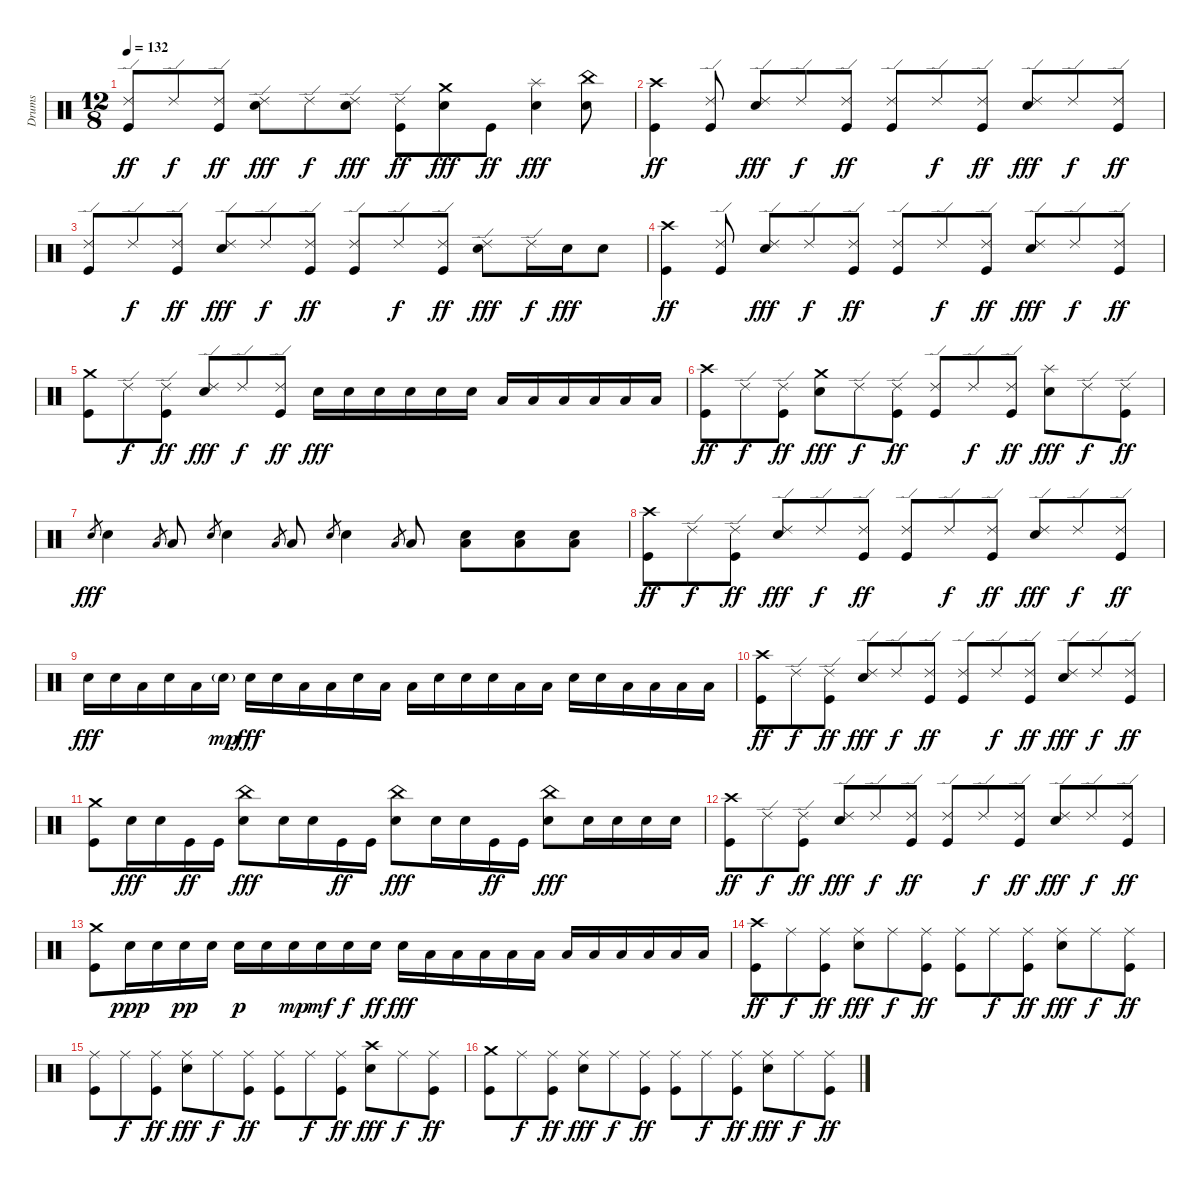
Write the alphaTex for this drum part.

\track ("Drums" "Drums") {instrument percussion}
\staff {score}
\articulation defaults
\ts (12 8)
\tempo 132
\clef neutral
\ks c
("Ride (edge) 2" "Kick (hit)").8{dy ff} "Ride (edge) 2".8{dy f} ("Ride (edge) 2" "Kick (hit)").8{dy ff} ("Ride (edge) 2" "Snare (hit) 2").8{dy fff} "Ride (edge) 2".8{dy f} ("Ride (edge) 2" "Snare (hit) 2").8{dy fff} ("Ride (edge) 2" "Kick (hit)").8{dy ff} ("Crash medium (hit)" "Snare (hit) 2").8{dy fff} "Kick (hit)".8{dy ff} ("Splash (hit)" "Snare (hit) 2").4{dy fff} ("China (hit)" "Snare (hit) 2").8 |
("Crash high (hit)" "Kick (hit)").4{dy ff} ("Ride (edge) 2" "Kick (hit)").8 ("Ride (edge) 2" "Snare (hit) 2").8{dy fff} "Ride (edge) 2".8{dy f} ("Ride (edge) 2" "Kick (hit)").8{dy ff} ("Ride (edge) 2" "Kick (hit)").8 "Ride (edge) 2".8{dy f} ("Ride (edge) 2" "Kick (hit)").8{dy ff} ("Ride (edge) 2" "Snare (hit) 2").8{dy fff} "Ride (edge) 2".8{dy f} ("Ride (edge) 2" "Kick (hit)").8{dy ff} |
("Ride (edge) 2" "Kick (hit)").8 "Ride (edge) 2".8{dy f} ("Ride (edge) 2" "Kick (hit)").8{dy ff} ("Ride (edge) 2" "Snare (hit) 2").8{dy fff} "Ride (edge) 2".8{dy f} ("Ride (edge) 2" "Kick (hit)").8{dy ff} ("Ride (edge) 2" "Kick (hit)").8 "Ride (edge) 2".8{dy f} ("Ride (edge) 2" "Kick (hit)").8{dy ff} ("Ride (edge) 2" "Snare (hit) 2").8{dy fff} "Ride (edge) 2".16{dy f} "Snare (hit) 2".16{dy fff} "Snare (hit) 2".8 |
("Crash high (hit)" "Kick (hit)").4{dy ff} ("Ride (edge) 2" "Kick (hit)").8 ("Ride (edge) 2" "Snare (hit) 2").8{dy fff} "Ride (edge) 2".8{dy f} ("Ride (edge) 2" "Kick (hit)").8{dy ff} ("Ride (edge) 2" "Kick (hit)").8 "Ride (edge) 2".8{dy f} ("Ride (edge) 2" "Kick (hit)").8{dy ff} ("Ride (edge) 2" "Snare (hit) 2").8{dy fff} "Ride (edge) 2".8{dy f} ("Ride (edge) 2" "Kick (hit)").8{dy ff} |
("Crash medium (hit)" "Kick (hit)").8 "Ride (edge) 2".8{dy f} ("Ride (edge) 2" "Kick (hit)").8{dy ff} ("Ride (edge) 2" "Snare (hit) 2").8{dy fff} "Ride (edge) 2".8{dy f} ("Ride (edge) 2" "Kick (hit)").8{dy ff} "Snare (hit) 2".16{dy fff} "Snare (hit) 2".16 "Snare (hit) 2".16 "Snare (hit) 2".16 "Snare (hit) 2".16 "Snare (hit) 2".16 "Low Tom (hit)".16 "Low Tom (hit)".16 "Low Tom (hit)".16 "Low Tom (hit)".16 "Low Tom (hit)".16 "Low Tom (hit)".16 |
("Crash high (hit)" "Kick (hit)").8{dy ff} "Ride (edge) 2".8{dy f} ("Ride (edge) 2" "Kick (hit)").8{dy ff} ("Crash medium (hit)" "Snare (hit) 2").8{dy fff} "Ride (edge) 2".8{dy f} ("Ride (edge) 2" "Kick (hit)").8{dy ff} ("Ride (edge) 2" "Kick (hit)").8 "Ride (edge) 2".8{dy f} ("Ride (edge) 2" "Kick (hit)").8{dy ff} ("Splash (hit)" "Snare (hit) 2").8{dy fff} "Ride (edge) 2".8{dy f} ("Ride (edge) 2" "Kick (hit)").8{dy ff} |
"Snare (hit) 2".8{gr dy fff} "Snare (hit) 2".4 "Low Tom (hit)".8{gr} "Low Tom (hit)".8 "Snare (hit) 2".8{gr} "Snare (hit) 2".4 "Low Tom (hit)".8{gr} "Low Tom (hit)".8 "Snare (hit) 2".8{gr} "Snare (hit) 2".4 "Low Tom (hit)".8{gr} "Low Tom (hit)".8 ("Low Floor Tom (hit)" "Snare (hit) 2").8 ("Low Floor Tom (hit)" "Snare (hit) 2").8 ("Low Floor Tom (hit)" "Snare (hit) 2").8 |
("Crash high (hit)" "Kick (hit)").8{dy ff} "Ride (edge) 2".8{dy f} ("Ride (edge) 2" "Kick (hit)").8{dy ff} ("Ride (edge) 2" "Snare (hit) 2").8{dy fff} "Ride (edge) 2".8{dy f} ("Ride (edge) 2" "Kick (hit)").8{dy ff} ("Ride (edge) 2" "Kick (hit)").8 "Ride (edge) 2".8{dy f} ("Ride (edge) 2" "Kick (hit)").8{dy ff} ("Ride (edge) 2" "Snare (hit) 2").8{dy fff} "Ride (edge) 2".8{dy f} ("Ride (edge) 2" "Kick (hit)").8{dy ff} |
"Snare (hit) 2".16{dy fff} "Snare (hit) 2".16 "Low Tom (hit)".16 "Snare (hit) 2".16 "Low Tom (hit)".16 "Snare (hit) 2"{g}.16{dy mp} "Snare (hit) 2".16{dy fff} "Snare (hit) 2".16 "Low Tom (hit)".16 "Low Tom (hit)".16 "Snare (hit) 2".16 "Low Tom (hit)".16 "Low Tom (hit)".16 "Snare (hit) 2".16 "Snare (hit) 2".16 "Snare (hit) 2".16 "Low Tom (hit)".16 "Low Tom (hit)".16 "Snare (hit) 2".16 "Snare (hit) 2".16 "Low Tom (hit)".16 "Low Tom (hit)".16 "Low Tom (hit)".16 "Low Tom (hit)".16 |
("Crash high (hit)" "Kick (hit)").8{dy ff} "Ride (edge) 2".8{dy f} ("Ride (edge) 2" "Kick (hit)").8{dy ff} ("Ride (edge) 2" "Snare (hit) 2").8{dy fff} "Ride (edge) 2".8{dy f} ("Ride (edge) 2" "Kick (hit)").8{dy ff} ("Ride (edge) 2" "Kick (hit)").8 "Ride (edge) 2".8{dy f} ("Ride (edge) 2" "Kick (hit)").8{dy ff} ("Ride (edge) 2" "Snare (hit) 2").8{dy fff} "Ride (edge) 2".8{dy f} ("Ride (edge) 2" "Kick (hit)").8{dy ff} |
("Crash medium (hit)" "Kick (hit)").8 "Snare (hit) 2".16{dy fff} "Snare (hit) 2".16 "Kick (hit)".16{dy ff} "Kick (hit)".16 ("China (hit)" "Snare (hit) 2").8{dy fff} "Snare (hit) 2".16 "Snare (hit) 2".16 "Kick (hit)".16{dy ff} "Kick (hit)".16 ("China (hit)" "Snare (hit) 2").8{dy fff} "Snare (hit) 2".16 "Snare (hit) 2".16 "Kick (hit)".16{dy ff} "Kick (hit)".16 ("China (hit)" "Snare (hit) 2").8{dy fff} "Snare (hit) 2".16 "Snare (hit) 2".16 "Snare (hit) 2".16 "Snare (hit) 2".16 |
("Crash high (hit)" "Kick (hit)").8{dy ff} "Ride (edge) 2".8{dy f} ("Ride (edge) 2" "Kick (hit)").8{dy ff} ("Ride (edge) 2" "Snare (hit) 2").8{dy fff} "Ride (edge) 2".8{dy f} ("Ride (edge) 2" "Kick (hit)").8{dy ff} ("Ride (edge) 2" "Kick (hit)").8 "Ride (edge) 2".8{dy f} ("Ride (edge) 2" "Kick (hit)").8{dy ff} ("Ride (edge) 2" "Snare (hit) 2").8{dy fff} "Ride (edge) 2".8{dy f} ("Ride (edge) 2" "Kick (hit)").8{dy ff} |
("Crash medium (hit)" "Kick (hit)").8 "Snare (hit) 2".16{dy ppp} "Snare (hit) 2".16 "Snare (hit) 2".16{dy pp} "Snare (hit) 2".16 "Snare (hit) 2".16{dy p} "Snare (hit) 2".16 "Snare (hit) 2".16{dy mp} "Snare (hit) 2".16{dy mf} "Snare (hit) 2".16{dy f} "Snare (hit) 2".16{dy ff} "Snare (hit) 2".16{dy fff} "Low Tom (hit)".16 "Low Tom (hit)".16 "Low Tom (hit)".16 "Low Tom (hit)".16 "Low Tom (hit)".16 "Low Tom (hit)".16 "Low Tom (hit)".16 "Low Tom (hit)".16 "Low Tom (hit)".16 "Low Tom (hit)".16 "Low Tom (hit)".16 |
("Crash high (hit)" "Kick (hit)").8{dy ff} "Ride (middle)".8{dy f} ("Ride (middle)" "Kick (hit)").8{dy ff} ("Ride (middle)" "Snare (hit) 2").8{dy fff} "Ride (middle)".8{dy f} ("Ride (middle)" "Kick (hit)").8{dy ff} ("Ride (middle)" "Kick (hit)").8 "Ride (middle)".8{dy f} ("Ride (middle)" "Kick (hit)").8{dy ff} ("Ride (middle)" "Snare (hit) 2").8{dy fff} "Ride (middle)".8{dy f} ("Ride (middle)" "Kick (hit)").8{dy ff} |
("Ride (middle)" "Kick (hit)").8 "Ride (middle)".8{dy f} ("Ride (middle)" "Kick (hit)").8{dy ff} ("Ride (middle)" "Snare (hit) 2").8{dy fff} "Ride (middle)".8{dy f} ("Ride (middle)" "Kick (hit)").8{dy ff} ("Ride (middle)" "Kick (hit)").8 "Ride (middle)".8{dy f} ("Ride (middle)" "Kick (hit)").8{dy ff} ("Crash high (hit)" "Snare (hit) 2").8{dy fff} "Ride (middle)".8{dy f} ("Ride (middle)" "Kick (hit)").8{dy ff} |
("Crash medium (hit)" "Kick (hit)").8 "Ride (middle)".8{dy f} ("Ride (middle)" "Kick (hit)").8{dy ff} ("Ride (middle)" "Snare (hit) 2").8{dy fff} "Ride (middle)".8{dy f} ("Ride (middle)" "Kick (hit)").8{dy ff} ("Ride (middle)" "Kick (hit)").8 "Ride (middle)".8{dy f} ("Ride (middle)" "Kick (hit)").8{dy ff} ("Ride (middle)" "Snare (hit) 2").8{dy fff} "Ride (middle)".8{dy f} ("Ride (middle)" "Kick (hit)").8{dy ff}
